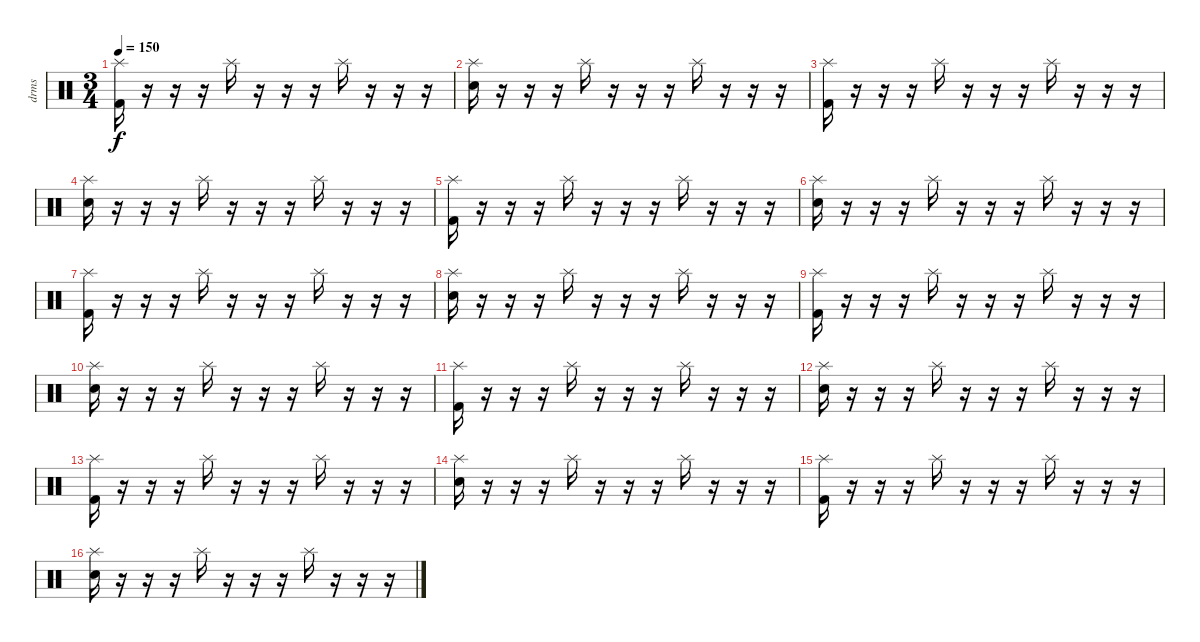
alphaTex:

\track ("drms" "drms") {instrument percussion}
\staff {score}
\articulation defaults
\ts (3 4)
\tempo 150
\clef neutral
\ks c
("Splash (hit)" "Kick (hit) 2").16{dy f} r.16 r.16 r.16 "Splash (hit)".16 r.16 r.16 r.16 "Splash (hit)".16 r.16 r.16 r.16 |
("Splash (hit)" "Electric Snare (hit)").16 r.16 r.16 r.16 "Splash (hit)".16 r.16 r.16 r.16 "Splash (hit)".16 r.16 r.16 r.16 |
("Splash (hit)" "Kick (hit) 2").16 r.16 r.16 r.16 "Splash (hit)".16 r.16 r.16 r.16 "Splash (hit)".16 r.16 r.16 r.16 |
("Splash (hit)" "Electric Snare (hit)").16 r.16 r.16 r.16 "Splash (hit)".16 r.16 r.16 r.16 "Splash (hit)".16 r.16 r.16 r.16 |
("Splash (hit)" "Kick (hit) 2").16 r.16 r.16 r.16 "Splash (hit)".16 r.16 r.16 r.16 "Splash (hit)".16 r.16 r.16 r.16 |
("Splash (hit)" "Electric Snare (hit)").16 r.16 r.16 r.16 "Splash (hit)".16 r.16 r.16 r.16 "Splash (hit)".16 r.16 r.16 r.16 |
("Splash (hit)" "Kick (hit) 2").16 r.16 r.16 r.16 "Splash (hit)".16 r.16 r.16 r.16 "Splash (hit)".16 r.16 r.16 r.16 |
("Splash (hit)" "Electric Snare (hit)").16 r.16 r.16 r.16 "Splash (hit)".16 r.16 r.16 r.16 "Splash (hit)".16 r.16 r.16 r.16 |
("Splash (hit)" "Kick (hit) 2").16 r.16 r.16 r.16 "Splash (hit)".16 r.16 r.16 r.16 "Splash (hit)".16 r.16 r.16 r.16 |
("Splash (hit)" "Electric Snare (hit)").16 r.16 r.16 r.16 "Splash (hit)".16 r.16 r.16 r.16 "Splash (hit)".16 r.16 r.16 r.16 |
("Splash (hit)" "Kick (hit) 2").16 r.16 r.16 r.16 "Splash (hit)".16 r.16 r.16 r.16 "Splash (hit)".16 r.16 r.16 r.16 |
("Splash (hit)" "Electric Snare (hit)").16 r.16 r.16 r.16 "Splash (hit)".16 r.16 r.16 r.16 "Splash (hit)".16 r.16 r.16 r.16 |
("Splash (hit)" "Kick (hit) 2").16 r.16 r.16 r.16 "Splash (hit)".16 r.16 r.16 r.16 "Splash (hit)".16 r.16 r.16 r.16 |
("Splash (hit)" "Electric Snare (hit)").16 r.16 r.16 r.16 "Splash (hit)".16 r.16 r.16 r.16 "Splash (hit)".16 r.16 r.16 r.16 |
("Splash (hit)" "Kick (hit) 2").16 r.16 r.16 r.16 "Splash (hit)".16 r.16 r.16 r.16 "Splash (hit)".16 r.16 r.16 r.16 |
("Splash (hit)" "Electric Snare (hit)").16 r.16 r.16 r.16 "Splash (hit)".16 r.16 r.16 r.16 "Splash (hit)".16 r.16 r.16 r.16
